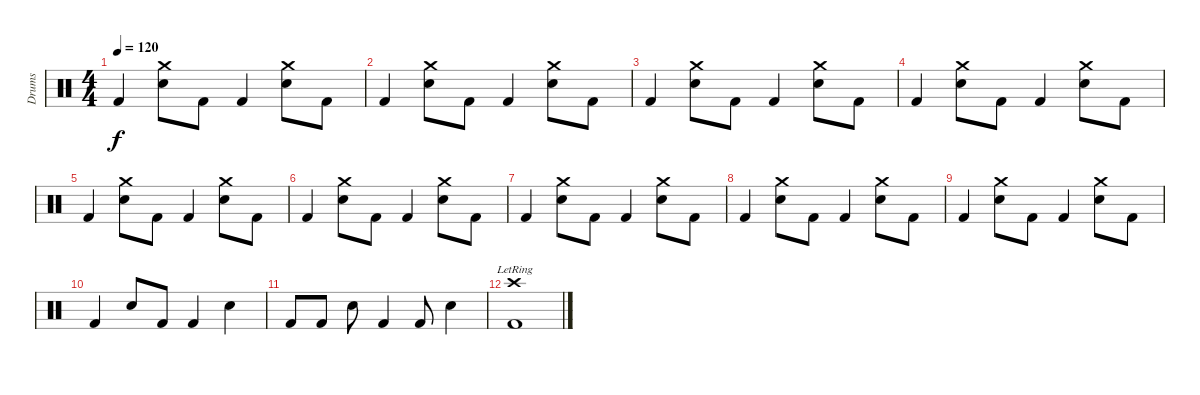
\track ("Drums" "Drums") {instrument percussion}
\staff {score}
\articulation defaults
\ts (4 4)
\tempo 120
\clef neutral
\ks c "Kick (hit) 2".4{dy f}
("Crash medium (hit)" "Electric Snare (hit)").8 "Kick (hit) 2".8 "Kick (hit) 2".4 ("Crash medium (hit)" "Electric Snare (hit)").8 "Kick (hit) 2".8 |
"Kick (hit) 2".4 ("Crash medium (hit)" "Electric Snare (hit)").8 "Kick (hit) 2".8 "Kick (hit) 2".4 ("Crash medium (hit)" "Electric Snare (hit)").8 "Kick (hit) 2".8 |
"Kick (hit) 2".4 ("Crash medium (hit)" "Electric Snare (hit)").8 "Kick (hit) 2".8 "Kick (hit) 2".4 ("Crash medium (hit)" "Electric Snare (hit)").8 "Kick (hit) 2".8 |
"Kick (hit) 2".4 ("Crash medium (hit)" "Electric Snare (hit)").8 "Kick (hit) 2".8 "Kick (hit) 2".4 ("Crash medium (hit)" "Electric Snare (hit)").8 "Kick (hit) 2".8 |
"Kick (hit) 2".4 ("Crash medium (hit)" "Electric Snare (hit)").8 "Kick (hit) 2".8 "Kick (hit) 2".4 ("Crash medium (hit)" "Electric Snare (hit)").8 "Kick (hit) 2".8 |
"Kick (hit) 2".4 ("Crash medium (hit)" "Electric Snare (hit)").8 "Kick (hit) 2".8 "Kick (hit) 2".4 ("Crash medium (hit)" "Electric Snare (hit)").8 "Kick (hit) 2".8 |
"Kick (hit) 2".4 ("Crash medium (hit)" "Electric Snare (hit)").8 "Kick (hit) 2".8 "Kick (hit) 2".4 ("Crash medium (hit)" "Electric Snare (hit)").8 "Kick (hit) 2".8 |
"Kick (hit) 2".4 ("Crash medium (hit)" "Electric Snare (hit)").8 "Kick (hit) 2".8 "Kick (hit) 2".4 ("Crash medium (hit)" "Electric Snare (hit)").8 "Kick (hit) 2".8 |
"Kick (hit) 2".4 ("Crash medium (hit)" "Electric Snare (hit)").8 "Kick (hit) 2".8 "Kick (hit) 2".4 ("Crash medium (hit)" "Electric Snare (hit)").8 "Kick (hit) 2".8 |
"Kick (hit) 2".4 "Electric Snare (hit)".8 "Kick (hit) 2".8 "Kick (hit) 2".4 "Electric Snare (hit)".4 |
"Kick (hit) 2".8 "Kick (hit) 2".8 "Electric Snare (hit)".8 "Kick (hit) 2".4 "Kick (hit) 2".8 "Electric Snare (hit)".4 |
("Crash high (hit)"{lr} "Kick (hit) 2"{lr}).1
